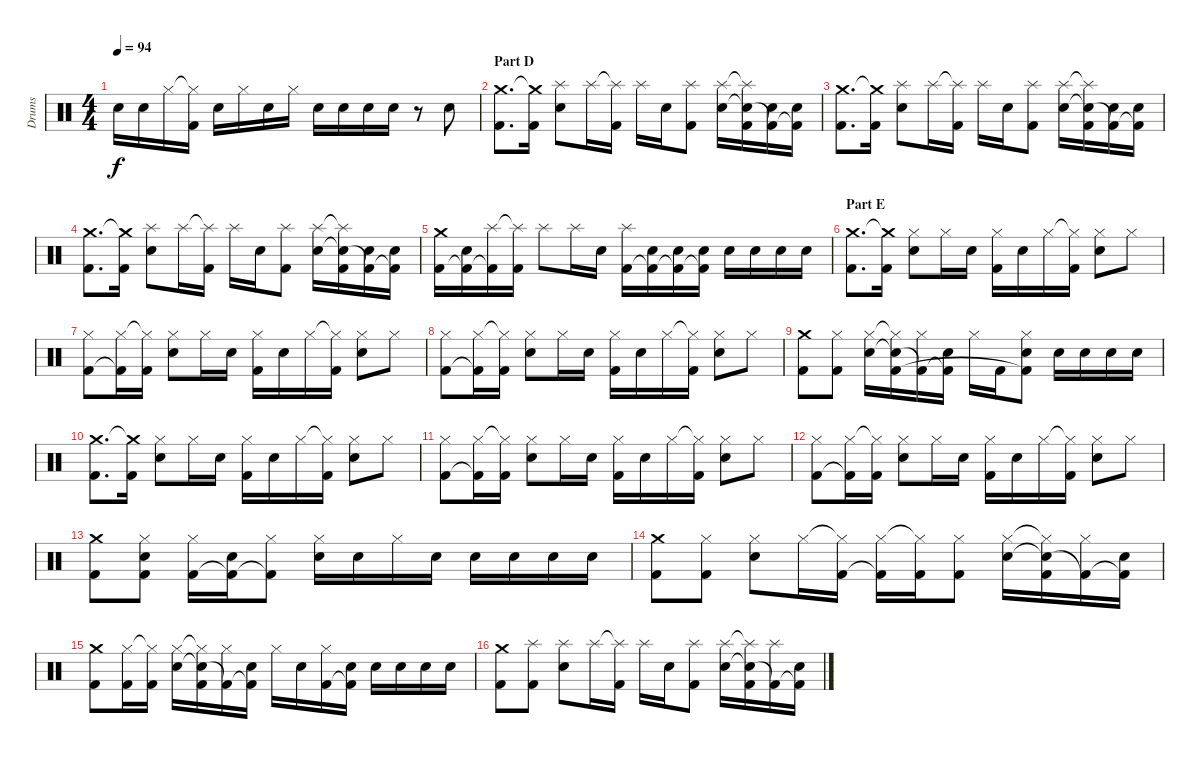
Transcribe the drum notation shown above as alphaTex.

\track ("Drums" "Drums") {instrument percussion}
\staff {score}
\articulation defaults
\ts (4 4)
\tempo 94
\clef neutral
\ks c "Electric Snare (hit)".16{dy f} "Electric Snare (hit)".16 "Hi-Hat (closed)".16
("Hi-Hat (closed)"{t} "Kick (hit) 2").16 "Electric Snare (hit)".16 "Hi-Hat (closed)".16 "Electric Snare (hit)".16 "Hi-Hat (closed)".16 "Electric Snare (hit)".16 "Electric Snare (hit)".16 "Electric Snare (hit)".16 "Electric Snare (hit)".16 r.8 "Electric Snare (hit)".8 |
\section ("" "Part D")
("Crash medium (hit)" "Kick (hit) 2").8{d} ("Crash medium (hit)"{t} "Kick (hit) 2").16 ("Splash (hit)" "Electric Snare (hit)").8 "Splash (hit)".16 ("Splash (hit)"{t} "Kick (hit) 2").16 "Splash (hit)".16 "Electric Snare (hit)".16 ("Splash (hit)" "Kick (hit) 2").8 ("Splash (hit)" "Electric Snare (hit)").16 ("Splash (hit)"{t} "Electric Snare (hit)"{t} "Kick (hit) 2").16 ("Electric Snare (hit)" "Kick (hit) 2"{t}).16 ("Electric Snare (hit)" "Kick (hit) 2"{t}).16 |
("Crash medium (hit)" "Kick (hit) 2").8{d} ("Crash medium (hit)"{t} "Kick (hit) 2").16 ("Splash (hit)" "Electric Snare (hit)").8 "Splash (hit)".16 ("Splash (hit)"{t} "Kick (hit) 2").16 "Splash (hit)".16 "Electric Snare (hit)".16 ("Splash (hit)" "Kick (hit) 2").8 ("Splash (hit)" "Electric Snare (hit)").16 ("Splash (hit)"{t} "Electric Snare (hit)"{t} "Kick (hit) 2").16 ("Electric Snare (hit)" "Kick (hit) 2"{t}).16 ("Electric Snare (hit)" "Kick (hit) 2"{t}).16 |
("Crash medium (hit)" "Kick (hit) 2").8{d} ("Crash medium (hit)"{t} "Kick (hit) 2").16 ("Splash (hit)" "Electric Snare (hit)").8 "Splash (hit)".16 ("Splash (hit)"{t} "Kick (hit) 2").16 "Splash (hit)".16 "Electric Snare (hit)".16 ("Splash (hit)" "Kick (hit) 2").8 ("Splash (hit)" "Electric Snare (hit)").16 ("Splash (hit)"{t} "Electric Snare (hit)"{t} "Kick (hit) 2").16 ("Electric Snare (hit)" "Kick (hit) 2"{t}).16 ("Electric Snare (hit)" "Kick (hit) 2"{t}).16 |
("Crash medium (hit)" "Kick (hit) 2").16 ("Electric Snare (hit)" "Kick (hit) 2"{t}).16 ("Splash (hit)" "Kick (hit) 2"{t}).16 ("Splash (hit)"{t} "Kick (hit) 2").16 "Splash (hit)".8 "Splash (hit)".16 "Electric Snare (hit)".16 ("Splash (hit)" "Kick (hit) 2").16 ("Electric Snare (hit)" "Kick (hit) 2"{t}).16 ("Electric Snare (hit)" "Kick (hit) 2"{t}).16 ("Electric Snare (hit)" "Kick (hit) 2"{t}).16 "Electric Snare (hit)".16 "Electric Snare (hit)".16 "Electric Snare (hit)".16 "Electric Snare (hit)".16 |
\section ("" "Part E")
("Crash medium (hit)" "Kick (hit) 2").8{d} ("Crash medium (hit)"{t} "Kick (hit) 2").16 ("Hi-Hat (closed)" "Electric Snare (hit)").8 "Hi-Hat (closed)".16 "Electric Snare (hit)".16 ("Hi-Hat (closed)" "Kick (hit) 2").16 "Electric Snare (hit)".16 "Hi-Hat (closed)".16 ("Hi-Hat (closed)"{t} "Kick (hit) 2").16 ("Hi-Hat (closed)" "Electric Snare (hit)").8 "Hi-Hat (closed)".8 |
("Hi-Hat (closed)" "Kick (hit) 2").8 ("Hi-Hat (closed)" "Kick (hit) 2"{t}).16 ("Hi-Hat (closed)"{t} "Kick (hit) 2").16 ("Hi-Hat (closed)" "Electric Snare (hit)").8 "Hi-Hat (closed)".16 "Electric Snare (hit)".16 ("Hi-Hat (closed)" "Kick (hit) 2").16 "Electric Snare (hit)".16 "Hi-Hat (closed)".16 ("Hi-Hat (closed)"{t} "Kick (hit) 2").16 ("Hi-Hat (closed)" "Electric Snare (hit)").8 "Hi-Hat (closed)".8 |
("Hi-Hat (closed)" "Kick (hit) 2").8 ("Hi-Hat (closed)" "Kick (hit) 2"{t}).16 ("Hi-Hat (closed)"{t} "Kick (hit) 2").16 ("Hi-Hat (closed)" "Electric Snare (hit)").8 "Hi-Hat (closed)".16 "Electric Snare (hit)".16 ("Hi-Hat (closed)" "Kick (hit) 2").16 "Electric Snare (hit)".16 "Hi-Hat (closed)".16 ("Hi-Hat (closed)"{t} "Kick (hit) 2").16 ("Hi-Hat (closed)" "Electric Snare (hit)").8 "Hi-Hat (closed)".8 |
("Crash medium (hit)" "Kick (hit) 2").8 ("Hi-Hat (closed)" "Kick (hit) 2").8 ("Hi-Hat (closed)" "Electric Snare (hit)").16 ("Hi-Hat (closed)"{t} "Electric Snare (hit)"{t} "Kick (hit) 2").16 ("Hi-Hat (closed)" "Kick (hit) 2"{t}).16 ("Electric Snare (hit)" "Kick (hit) 2"{t}).16 "Hi-Hat (closed)".16 "Kick (hit) 2".16 ("Hi-Hat (closed)" "Electric Snare (hit)" "Kick (hit) 2"{t}).8 "Electric Snare (hit)".16 "Electric Snare (hit)".16 "Electric Snare (hit)".16 "Electric Snare (hit)".16 |
("Crash medium (hit)" "Kick (hit) 2").8{d} ("Crash medium (hit)"{t} "Kick (hit) 2").16 ("Hi-Hat (closed)" "Electric Snare (hit)").8 "Hi-Hat (closed)".16 "Electric Snare (hit)".16 ("Hi-Hat (closed)" "Kick (hit) 2").16 "Electric Snare (hit)".16 "Hi-Hat (closed)".16 ("Hi-Hat (closed)"{t} "Kick (hit) 2").16 ("Hi-Hat (closed)" "Electric Snare (hit)").8 "Hi-Hat (closed)".8 |
("Hi-Hat (closed)" "Kick (hit) 2").8 ("Hi-Hat (closed)" "Kick (hit) 2"{t}).16 ("Hi-Hat (closed)"{t} "Kick (hit) 2").16 ("Hi-Hat (closed)" "Electric Snare (hit)").8 "Hi-Hat (closed)".16 "Electric Snare (hit)".16 ("Hi-Hat (closed)" "Kick (hit) 2").16 "Electric Snare (hit)".16 "Hi-Hat (closed)".16 ("Hi-Hat (closed)"{t} "Kick (hit) 2").16 ("Hi-Hat (closed)" "Electric Snare (hit)").8 "Hi-Hat (closed)".8 |
("Hi-Hat (closed)" "Kick (hit) 2").8 ("Hi-Hat (closed)" "Kick (hit) 2"{t}).16 ("Hi-Hat (closed)"{t} "Kick (hit) 2").16 ("Hi-Hat (closed)" "Electric Snare (hit)").8 "Hi-Hat (closed)".16 "Electric Snare (hit)".16 ("Hi-Hat (closed)" "Kick (hit) 2").16 "Electric Snare (hit)".16 "Hi-Hat (closed)".16 ("Hi-Hat (closed)"{t} "Kick (hit) 2").16 ("Hi-Hat (closed)" "Electric Snare (hit)").8 "Hi-Hat (closed)".8 |
("Crash medium (hit)" "Kick (hit) 2").8 ("Hi-Hat (closed)" "Electric Snare (hit)" "Kick (hit) 2").8 ("Hi-Hat (closed)" "Kick (hit) 2").16 ("Electric Snare (hit)" "Kick (hit) 2"{t}).16 ("Hi-Hat (closed)" "Kick (hit) 2"{t}).8 ("Hi-Hat (closed)" "Electric Snare (hit)").16 "Electric Snare (hit)".16 "Hi-Hat (closed)".16 "Electric Snare (hit)".16 "Electric Snare (hit)".16 "Electric Snare (hit)".16 "Electric Snare (hit)".16 "Electric Snare (hit)".16 |
("Crash medium (hit)" "Kick (hit) 2").8 ("Hi-Hat (closed)" "Kick (hit) 2").8 ("Hi-Hat (closed)" "Electric Snare (hit)").8 "Hi-Hat (closed)".16 ("Hi-Hat (closed)"{t} "Kick (hit) 2").16 ("Hi-Hat (closed)" "Kick (hit) 2"{t}).16 ("Hi-Hat (closed)"{t} "Kick (hit) 2").16 ("Hi-Hat (closed)" "Kick (hit) 2").8 ("Hi-Hat (closed)" "Electric Snare (hit)").16 ("Hi-Hat (closed)"{t} "Electric Snare (hit)"{t} "Kick (hit) 2").16 ("Hi-Hat (closed)" "Kick (hit) 2"{t}).16 ("Electric Snare (hit)" "Kick (hit) 2"{t}).16 |
("Crash medium (hit)" "Kick (hit) 2").8 ("Hi-Hat (closed)" "Kick (hit) 2").16 ("Hi-Hat (closed)"{t} "Kick (hit) 2").16 ("Hi-Hat (closed)" "Electric Snare (hit)").16 ("Hi-Hat (closed)"{t} "Electric Snare (hit)"{t} "Kick (hit) 2").16 ("Hi-Hat (closed)" "Kick (hit) 2"{t}).16 ("Electric Snare (hit)" "Kick (hit) 2"{t}).16 "Hi-Hat (closed)".16 "Electric Snare (hit)".16 ("Hi-Hat (closed)" "Kick (hit) 2").16 ("Electric Snare (hit)" "Kick (hit) 2"{t}).16 "Electric Snare (hit)".16 "Electric Snare (hit)".16 "Electric Snare (hit)".16 "Electric Snare (hit)".16 |
("Crash medium (hit)" "Kick (hit) 2").8 ("Splash (hit)" "Kick (hit) 2").8 ("Splash (hit)" "Electric Snare (hit)").8 "Splash (hit)".16 ("Splash (hit)"{t} "Kick (hit) 2").16 "Splash (hit)".16 "Electric Snare (hit)".16 ("Splash (hit)" "Kick (hit) 2").8 ("Splash (hit)" "Electric Snare (hit)").16 ("Splash (hit)"{t} "Electric Snare (hit)"{t} "Kick (hit) 2").16 ("Splash (hit)" "Kick (hit) 2"{t}).16 ("Electric Snare (hit)" "Kick (hit) 2"{t}).16
